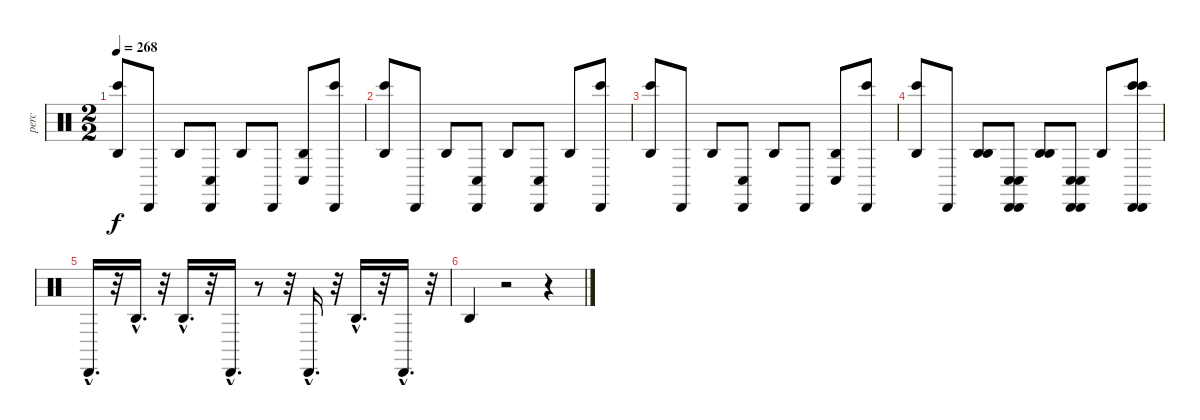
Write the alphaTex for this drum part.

\track ("perc" "perc") {instrument percussion}
\staff {score}
\articulation defaults
\ts (2 2)
\tempo 268
\clef neutral
\ks c
("Bongo High (hit)" "Agogo high (hit)").8{dy f} "Cabasa (hit)".8 "Agogo high (hit)".8 ("Conga low (hit)" "Cabasa (hit)").8 "Agogo high (hit)".8 "Cabasa (hit)".8 ("Conga low (hit)" "Agogo high (hit)").8 ("Bongo High (hit)" "Cabasa (hit)").8 |
("Bongo High (hit)" "Agogo high (hit)").8 "Cabasa (hit)".8 "Agogo high (hit)".8 ("Conga low (hit)" "Cabasa (hit)").8 "Agogo high (hit)".8 ("Conga low (hit)" "Cabasa (hit)").8 "Agogo high (hit)".8 ("Bongo High (hit)" "Cabasa (hit)").8 |
("Bongo High (hit)" "Agogo high (hit)").8 "Cabasa (hit)".8 "Agogo high (hit)".8 ("Conga low (hit)" "Cabasa (hit)").8 "Agogo high (hit)".8 "Cabasa (hit)".8 ("Conga low (hit)" "Agogo high (hit)").8 ("Bongo High (hit)" "Cabasa (hit)").8 |
("Bongo High (hit)" "Agogo high (hit)").8 "Cabasa (hit)".8 ("Agogo high (hit)" "Agogo high (hit)").8 ("Conga low (hit)" "Cabasa (hit)" "Conga low (hit)" "Cabasa (hit)").8 ("Agogo high (hit)" "Agogo high (hit)").8 ("Conga low (hit)" "Cabasa (hit)" "Conga low (hit)" "Cabasa (hit)").8 "Agogo high (hit)".8 ("Bongo High (hit)" "Cabasa (hit)" "Bongo High (hit)" "Cabasa (hit)").8 |
"Cabasa (hit)"{hac}.16{d} r.32 "Agogo high (hit)"{hac}.16{d} r.32 "Agogo high (hit)"{hac}.16{d} r.32 "Cabasa (hit)"{hac}.16{d} r.8 r.32 "Cabasa (hit)"{hac}.16{d} r.32 "Agogo high (hit)"{hac}.16{d} r.32 "Cabasa (hit)"{hac}.16{d} r.32 |
"Agogo high (hit)".4 r.2 r.4
